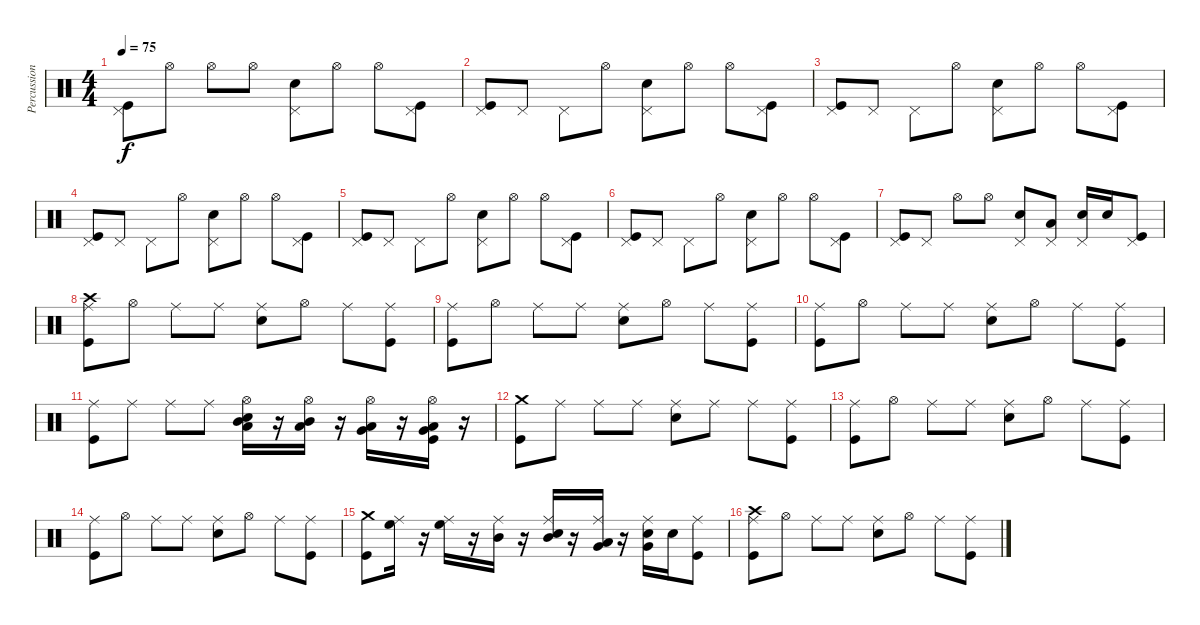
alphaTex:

\track ("Percussion" "Percussion") {instrument percussion}
\staff {score}
\articulation defaults
\ts (4 4)
\tempo 75
\clef neutral
\ks c
("Pedal Hi-Hat (hit)" "Kick (hit)").8{dy f} "Hi-Hat (open)".8 "Hi-Hat (open)".8 "Hi-Hat (open)".8 ("Snare (hit) 2" "Pedal Hi-Hat (hit)").8 "Hi-Hat (open)".8 "Hi-Hat (open)".8 ("Kick (hit)" "Pedal Hi-Hat (hit)").8 |
("Pedal Hi-Hat (hit)" "Kick (hit)").8 "Pedal Hi-Hat (hit)".8 "Pedal Hi-Hat (hit)".8 "Hi-Hat (open)".8 ("Snare (hit) 2" "Pedal Hi-Hat (hit)").8 "Hi-Hat (open)".8 "Hi-Hat (open)".8 ("Kick (hit)" "Pedal Hi-Hat (hit)").8 |
("Pedal Hi-Hat (hit)" "Kick (hit)").8 "Pedal Hi-Hat (hit)".8 "Pedal Hi-Hat (hit)".8 "Hi-Hat (open)".8 ("Snare (hit) 2" "Pedal Hi-Hat (hit)").8 "Hi-Hat (open)".8 "Hi-Hat (open)".8 ("Kick (hit)" "Pedal Hi-Hat (hit)").8 |
("Pedal Hi-Hat (hit)" "Kick (hit)").8 "Pedal Hi-Hat (hit)".8 "Pedal Hi-Hat (hit)".8 "Hi-Hat (open)".8 ("Snare (hit) 2" "Pedal Hi-Hat (hit)").8 "Hi-Hat (open)".8 "Hi-Hat (open)".8 ("Kick (hit)" "Pedal Hi-Hat (hit)").8 |
("Pedal Hi-Hat (hit)" "Kick (hit)").8 "Pedal Hi-Hat (hit)".8 "Pedal Hi-Hat (hit)".8 "Hi-Hat (open)".8 ("Snare (hit) 2" "Pedal Hi-Hat (hit)").8 "Hi-Hat (open)".8 "Hi-Hat (open)".8 ("Kick (hit)" "Pedal Hi-Hat (hit)").8 |
("Pedal Hi-Hat (hit)" "Kick (hit)").8 "Pedal Hi-Hat (hit)".8 "Pedal Hi-Hat (hit)".8 "Hi-Hat (open)".8 ("Snare (hit) 2" "Pedal Hi-Hat (hit)").8 "Hi-Hat (open)".8 "Hi-Hat (open)".8 ("Kick (hit)" "Pedal Hi-Hat (hit)").8 |
("Pedal Hi-Hat (hit)" "Kick (hit)").8 "Pedal Hi-Hat (hit)".8 "Hi-Hat (open)".8 "Hi-Hat (open)".8 ("Snare (hit) 2" "Pedal Hi-Hat (hit)").8 ("Low Floor Tom (hit)" "Pedal Hi-Hat (hit)").8 ("Snare (hit) 2" "Pedal Hi-Hat (hit)").16 "Snare (hit) 2".16 ("Kick (hit)" "Pedal Hi-Hat (hit)").8 |
("Crash high (hit)" "Kick (hit)" "Ride (middle)").8 "Hi-Hat (open)".8 "Ride (middle)".8 "Ride (middle)".8 ("Snare (hit) 2" "Ride (middle)").8 "Hi-Hat (open)".8 "Ride (middle)".8 ("Kick (hit)" "Ride (middle)").8 |
("Ride (middle)" "Kick (hit)").8 "Hi-Hat (open)".8 "Ride (middle)".8 "Ride (middle)".8 ("Snare (hit) 2" "Ride (middle)").8 "Hi-Hat (open)".8 "Ride (middle)".8 ("Kick (hit)" "Ride (middle)").8 |
("Ride (middle)" "Kick (hit)").8 "Hi-Hat (open)".8 "Ride (middle)".8 "Ride (middle)".8 ("Snare (hit) 2" "Ride (middle)").8 "Hi-Hat (open)".8 "Ride (middle)".8 ("Kick (hit)" "Ride (middle)").8 |
("Ride (middle)" "Kick (hit)").8 "Ride (middle)".8 "Ride (middle)".8 "Ride (middle)".8 ("Low Tom (hit)" "Mid Tom (hit)" "Snare (hit) 2" "Hi-Hat (open)").16 r.16 ("Low Tom (hit)" "Mid Tom (hit)" "Hi-Hat (open)").16 r.16 ("Low Floor Tom (hit)" "Very Low Tom (hit)" "Hi-Hat (open)").16 r.16 ("Low Floor Tom (hit)" "Very Low Tom (hit)" "Kick (hit)" "Hi-Hat (open)").16 r.16 |
("Crash medium (hit)" "Kick (hit)").8 "Ride (middle)".8 "Ride (middle)".8 "Ride (middle)".8 ("Snare (hit) 2" "Ride (middle)").8 "Ride (middle)".8 "Ride (middle)".8 ("Kick (hit)" "Ride (middle)").8 |
("Ride (middle)" "Kick (hit)").8 "Hi-Hat (open)".8 "Ride (middle)".8 "Ride (middle)".8 ("Snare (hit) 2" "Ride (middle)").8 "Hi-Hat (open)".8 "Ride (middle)".8 ("Kick (hit)" "Ride (middle)").8 |
("Ride (middle)" "Kick (hit)").8 "Hi-Hat (open)".8 "Ride (middle)".8 "Ride (middle)".8 ("Snare (hit) 2" "Ride (middle)").8 "Hi-Hat (open)".8 "Ride (middle)".8 ("Kick (hit)" "Ride (middle)").8 |
("Crash medium (hit)" "Kick (hit)").8 ("High Floor Tom (hit)" "Ride (middle)").16 r.16 ("High Floor Tom (hit)" "Ride (middle)").16 r.16 ("Mid Tom (hit)" "Ride (middle)").16 r.16 ("Mid Tom (hit)" "Snare (hit) 2" "Ride (middle)").16 r.16 ("Very Low Tom (hit)" "Low Floor Tom (hit)" "Ride (middle)").16 r.16 ("Very Low Tom (hit)" "Snare (hit) 2" "Ride (middle)").16 "Snare (hit) 2".16 ("Kick (hit)" "Ride (middle)").8 |
("Crash high (hit)" "Kick (hit)" "Ride (middle)").8 "Hi-Hat (open)".8 "Ride (middle)".8 "Ride (middle)".8 ("Snare (hit) 2" "Ride (middle)").8 "Hi-Hat (open)".8 "Ride (middle)".8 ("Kick (hit)" "Ride (middle)").8
